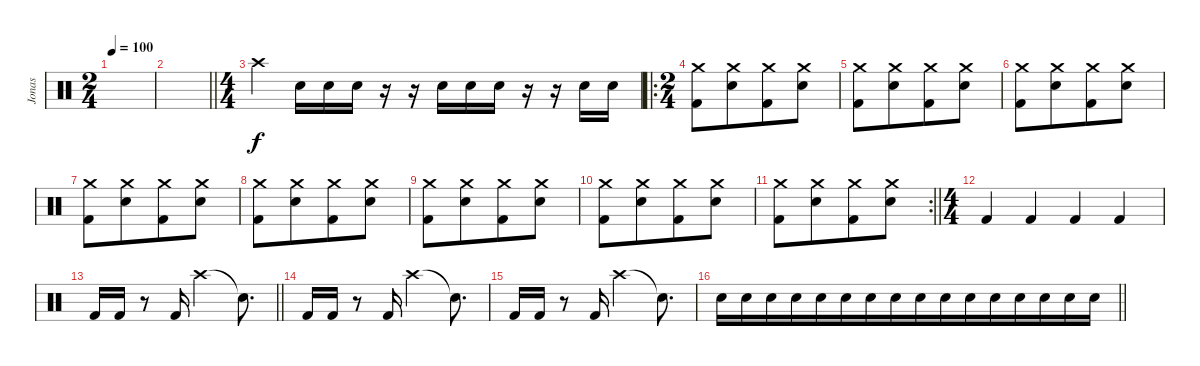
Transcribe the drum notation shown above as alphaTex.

\track ("Jonas" "Jonas") {instrument percussion}
\staff {score}
\articulation defaults
\ts (2 4)
\tempo 100
\clef neutral
\ks c
|
\barLineRight lightlight
|
\ts (4 4)
"Crash high (hit)".4 "Snare (hit) 2".16{beam merge} "Snare (hit) 2".16{beam merge} "Snare (hit) 2".16 r.16 r.16 "Snare (hit) 2".16{beam merge} "Snare (hit) 2".16{beam merge} "Snare (hit) 2".16 r.16 r.16 "Snare (hit) 2".16{beam merge} "Snare (hit) 2".16 |
\ro
\ts (2 4)
("Crash medium (hit)" "Kick (hit) 2").8{beam merge} ("Crash medium (hit)" "Snare (hit) 2").8{beam merge} ("Crash medium (hit)" "Kick (hit) 2").8{beam merge} ("Crash medium (hit)" "Snare (hit) 2").8 |
("Crash medium (hit)" "Kick (hit) 2").8{beam merge} ("Crash medium (hit)" "Snare (hit) 2").8{beam merge} ("Crash medium (hit)" "Kick (hit) 2").8{beam merge} ("Crash medium (hit)" "Snare (hit) 2").8 |
("Crash medium (hit)" "Kick (hit) 2").8{beam merge} ("Crash medium (hit)" "Snare (hit) 2").8{beam merge} ("Crash medium (hit)" "Kick (hit) 2").8{beam merge} ("Crash medium (hit)" "Snare (hit) 2").8 |
("Crash medium (hit)" "Kick (hit) 2").8{beam merge} ("Crash medium (hit)" "Snare (hit) 2").8{beam merge} ("Crash medium (hit)" "Kick (hit) 2").8{beam merge} ("Crash medium (hit)" "Snare (hit) 2").8 |
("Crash medium (hit)" "Kick (hit) 2").8{beam merge} ("Crash medium (hit)" "Snare (hit) 2").8{beam merge} ("Crash medium (hit)" "Kick (hit) 2").8{beam merge} ("Crash medium (hit)" "Snare (hit) 2").8 |
("Crash medium (hit)" "Kick (hit) 2").8{beam merge} ("Crash medium (hit)" "Snare (hit) 2").8{beam merge} ("Crash medium (hit)" "Kick (hit) 2").8{beam merge} ("Crash medium (hit)" "Snare (hit) 2").8 |
("Crash medium (hit)" "Kick (hit) 2").8{beam merge} ("Crash medium (hit)" "Snare (hit) 2").8{beam merge} ("Crash medium (hit)" "Kick (hit) 2").8{beam merge} ("Crash medium (hit)" "Snare (hit) 2").8 |
\rc 2
\barLineRight lightlight
("Crash medium (hit)" "Kick (hit) 2").8{beam merge} ("Crash medium (hit)" "Snare (hit) 2").8{beam merge} ("Crash medium (hit)" "Kick (hit) 2").8{beam merge} ("Crash medium (hit)" "Snare (hit) 2").8 |
\ts (4 4)
"Kick (hit) 2".4 "Kick (hit) 2".4 "Kick (hit) 2".4 "Kick (hit) 2".4 |
\barLineRight lightlight "Kick (hit) 2".16{beam merge} "Kick (hit) 2".16
r.8 "Kick (hit) 2".16 "Crash high (hit)".2 "Snare (hit)"{t}.8{d} |
"Kick (hit) 2".16{beam merge} "Kick (hit) 2".16 r.8 "Kick (hit) 2".16 "Crash high (hit)".2 "Snare (hit)"{t}.8{d} |
"Kick (hit) 2".16{beam merge} "Kick (hit) 2".16 r.8 "Kick (hit) 2".16 "Crash high (hit)".2 "Snare (hit)"{t}.8{d} |
\barLineRight lightlight "Snare (hit) 2".16{beam merge} "Snare (hit) 2".16{beam merge} "Snare (hit) 2".16{beam merge} "Snare (hit) 2".16{beam merge} "Snare (hit) 2".16{beam merge} "Snare (hit) 2".16{beam merge} "Snare (hit) 2".16{beam merge} "Snare (hit) 2".16{beam merge} "Snare (hit) 2".16{beam merge} "Snare (hit) 2".16{beam merge} "Snare (hit) 2".16{beam merge} "Snare (hit) 2".16{beam merge} "Snare (hit) 2".16{beam merge} "Snare (hit) 2".16{beam merge} "Snare (hit) 2".16{beam merge} "Snare (hit) 2".16
